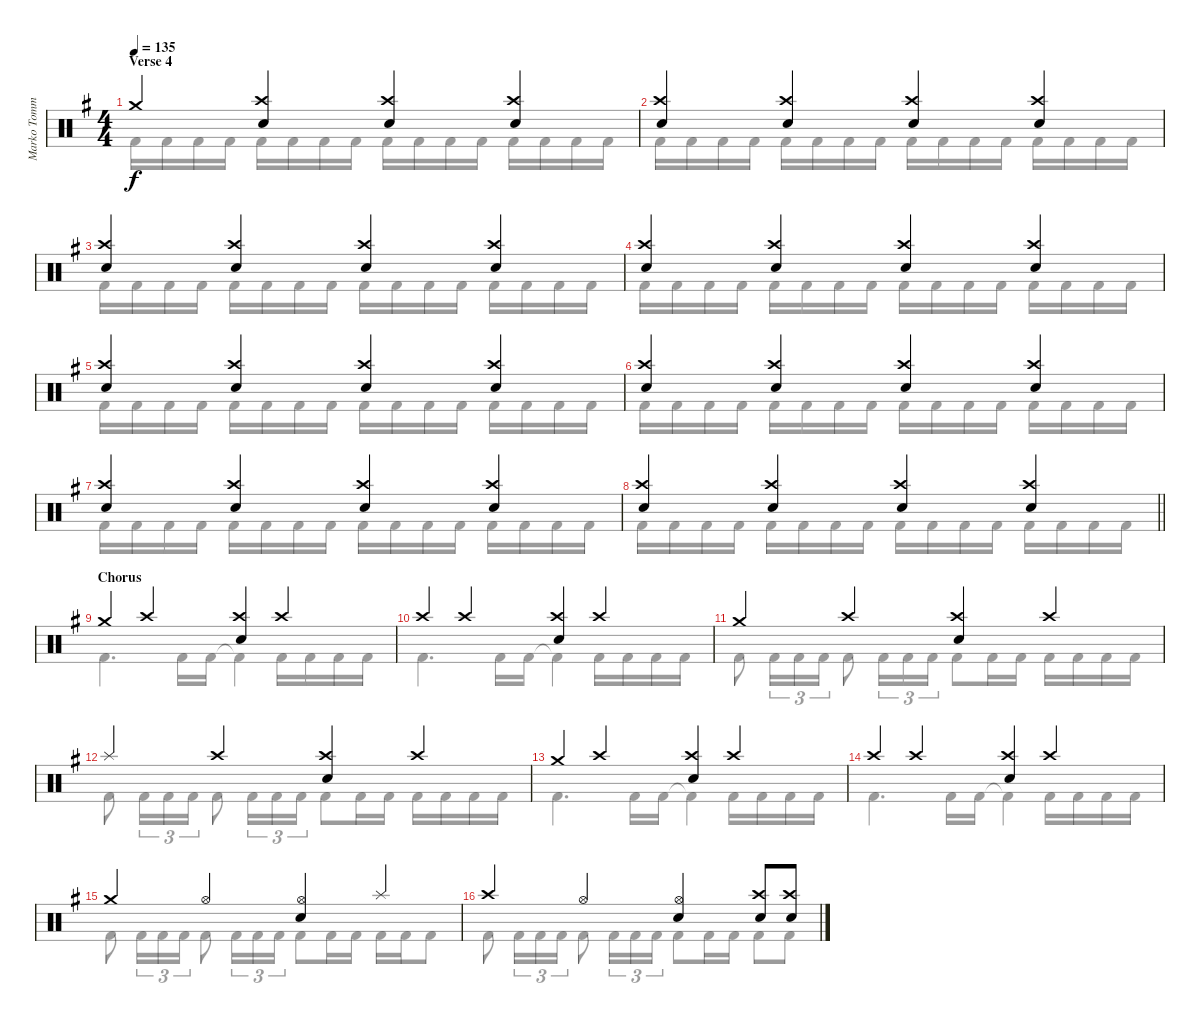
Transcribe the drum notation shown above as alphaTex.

\track ("Marko Tommila (drums)" "Marko Tomm") {instrument percussion}
\staff {score}
\articulation defaults
\voice
\ts (4 4)
\section ("" "Verse 4")
\tempo 135
\clef neutral
\ks eminor "Crash medium (hit)".4{dy f}
("Crash high (hit)" "Electric Snare (hit)").4 ("Crash high (hit)" "Electric Snare (hit)").4 ("Crash high (hit)" "Electric Snare (hit)").4 |
("Crash high (hit)" "Electric Snare (hit)").4 ("Crash high (hit)" "Electric Snare (hit)").4 ("Crash high (hit)" "Electric Snare (hit)").4 ("Crash high (hit)" "Electric Snare (hit)").4 |
("Crash high (hit)" "Electric Snare (hit)").4 ("Crash high (hit)" "Electric Snare (hit)").4 ("Crash high (hit)" "Electric Snare (hit)").4 ("Crash high (hit)" "Electric Snare (hit)").4 |
("Crash high (hit)" "Electric Snare (hit)").4 ("Crash high (hit)" "Electric Snare (hit)").4 ("Crash high (hit)" "Electric Snare (hit)").4 ("Crash high (hit)" "Electric Snare (hit)").4 |
("Crash high (hit)" "Electric Snare (hit)").4 ("Crash high (hit)" "Electric Snare (hit)").4 ("Crash high (hit)" "Electric Snare (hit)").4 ("Crash high (hit)" "Electric Snare (hit)").4 |
("Crash high (hit)" "Electric Snare (hit)").4 ("Crash high (hit)" "Electric Snare (hit)").4 ("Crash high (hit)" "Electric Snare (hit)").4 ("Crash high (hit)" "Electric Snare (hit)").4 |
("Crash high (hit)" "Electric Snare (hit)").4 ("Crash high (hit)" "Electric Snare (hit)").4 ("Crash high (hit)" "Electric Snare (hit)").4 ("Crash high (hit)" "Electric Snare (hit)").4 |
\barLineRight lightlight
("Crash high (hit)" "Electric Snare (hit)").4 ("Crash high (hit)" "Electric Snare (hit)").4 ("Crash high (hit)" "Electric Snare (hit)").4 ("Crash high (hit)" "Electric Snare (hit)").4 |
\section ("" "Chorus")
"Crash medium (hit)".4 "Crash high (hit)".4 ("Crash high (hit)" "Electric Snare (hit)").4 "Crash high (hit)".4 |
"Crash high (hit)".4 "Crash high (hit)".4 ("Crash high (hit)" "Electric Snare (hit)").4 "Crash high (hit)".4 |
"Crash medium (hit)".4 "Crash high (hit)".4 ("Crash high (hit)" "Electric Snare (hit)").4 "Crash high (hit)".4 |
"Splash (hit)".4 "Crash high (hit)".4 ("Crash high (hit)" "Electric Snare (hit)").4 "Crash high (hit)".4 |
"Crash medium (hit)".4 "Crash high (hit)".4 ("Crash high (hit)" "Electric Snare (hit)").4 "Crash high (hit)".4 |
"Crash high (hit)".4 "Crash high (hit)".4 ("Crash high (hit)" "Electric Snare (hit)").4 "Crash high (hit)".4 |
"Crash medium (hit)".4 "Hi-Hat (open)".4 ("Hi-Hat (open)" "Electric Snare (hit)").4 "Splash (hit)".4 |
"Crash high (hit)".4 "Hi-Hat (open)".4 ("Hi-Hat (open)" "Electric Snare (hit)").4 ("Crash high (hit)" "Electric Snare (hit)").8 ("Crash high (hit)" "Electric Snare (hit)").8
\voice
\clef neutral
\ottava regular
\simile none
\ks eminor "Kick (hit) 2".16{dy f} "Kick (hit) 2".16 "Kick (hit) 2".16 "Kick (hit) 2".16 "Kick (hit) 2".16 "Kick (hit) 2".16 "Kick (hit) 2".16 "Kick (hit) 2".16 "Kick (hit) 2".16 "Kick (hit) 2".16 "Kick (hit) 2".16 "Kick (hit) 2".16 "Kick (hit) 2".16 "Kick (hit) 2".16 "Kick (hit) 2".16 "Kick (hit) 2".16
|
"Kick (hit) 2".16 "Kick (hit) 2".16 "Kick (hit) 2".16 "Kick (hit) 2".16 "Kick (hit) 2".16 "Kick (hit) 2".16 "Kick (hit) 2".16 "Kick (hit) 2".16 "Kick (hit) 2".16 "Kick (hit) 2".16 "Kick (hit) 2".16 "Kick (hit) 2".16 "Kick (hit) 2".16 "Kick (hit) 2".16 "Kick (hit) 2".16 "Kick (hit) 2".16 |
"Kick (hit) 2".16 "Kick (hit) 2".16 "Kick (hit) 2".16 "Kick (hit) 2".16 "Kick (hit) 2".16 "Kick (hit) 2".16 "Kick (hit) 2".16 "Kick (hit) 2".16 "Kick (hit) 2".16 "Kick (hit) 2".16 "Kick (hit) 2".16 "Kick (hit) 2".16 "Kick (hit) 2".16 "Kick (hit) 2".16 "Kick (hit) 2".16 "Kick (hit) 2".16 |
"Kick (hit) 2".16 "Kick (hit) 2".16 "Kick (hit) 2".16 "Kick (hit) 2".16 "Kick (hit) 2".16 "Kick (hit) 2".16 "Kick (hit) 2".16 "Kick (hit) 2".16 "Kick (hit) 2".16 "Kick (hit) 2".16 "Kick (hit) 2".16 "Kick (hit) 2".16 "Kick (hit) 2".16 "Kick (hit) 2".16 "Kick (hit) 2".16 "Kick (hit) 2".16 |
"Kick (hit) 2".16 "Kick (hit) 2".16 "Kick (hit) 2".16 "Kick (hit) 2".16 "Kick (hit) 2".16 "Kick (hit) 2".16 "Kick (hit) 2".16 "Kick (hit) 2".16 "Kick (hit) 2".16 "Kick (hit) 2".16 "Kick (hit) 2".16 "Kick (hit) 2".16 "Kick (hit) 2".16 "Kick (hit) 2".16 "Kick (hit) 2".16 "Kick (hit) 2".16 |
"Kick (hit) 2".16 "Kick (hit) 2".16 "Kick (hit) 2".16 "Kick (hit) 2".16 "Kick (hit) 2".16 "Kick (hit) 2".16 "Kick (hit) 2".16 "Kick (hit) 2".16 "Kick (hit) 2".16 "Kick (hit) 2".16 "Kick (hit) 2".16 "Kick (hit) 2".16 "Kick (hit) 2".16 "Kick (hit) 2".16 "Kick (hit) 2".16 "Kick (hit) 2".16 |
"Kick (hit) 2".16 "Kick (hit) 2".16 "Kick (hit) 2".16 "Kick (hit) 2".16 "Kick (hit) 2".16 "Kick (hit) 2".16 "Kick (hit) 2".16 "Kick (hit) 2".16 "Kick (hit) 2".16 "Kick (hit) 2".16 "Kick (hit) 2".16 "Kick (hit) 2".16 "Kick (hit) 2".16 "Kick (hit) 2".16 "Kick (hit) 2".16 "Kick (hit) 2".16 |
\barLineRight lightlight "Kick (hit) 2".16 "Kick (hit) 2".16 "Kick (hit) 2".16 "Kick (hit) 2".16 "Kick (hit) 2".16 "Kick (hit) 2".16 "Kick (hit) 2".16 "Kick (hit) 2".16 "Kick (hit) 2".16 "Kick (hit) 2".16 "Kick (hit) 2".16 "Kick (hit) 2".16 "Kick (hit) 2".16 "Kick (hit) 2".16 "Kick (hit) 2".16 "Kick (hit) 2".16
|
"Kick (hit) 2".4{d} "Kick (hit) 2".16 "Kick (hit) 2".16 "Kick (hit) 2"{t}.4 "Kick (hit) 2".16 "Kick (hit) 2".16 "Kick (hit) 2".16 "Kick (hit) 2".16 |
"Kick (hit) 2".4{d} "Kick (hit) 2".16 "Kick (hit) 2".16 "Kick (hit) 2"{t}.4 "Kick (hit) 2".16 "Kick (hit) 2".16 "Kick (hit) 2".16 "Kick (hit) 2".16 |
"Kick (hit) 2".8 "Kick (hit) 2".16{tu (3 2)} "Kick (hit) 2".16{tu (3 2)} "Kick (hit) 2".16{tu (3 2)} "Kick (hit) 2".8 "Kick (hit) 2".16{tu (3 2)} "Kick (hit) 2".16{tu (3 2)} "Kick (hit) 2".16{tu (3 2)} "Kick (hit) 2".8 "Kick (hit) 2".16 "Kick (hit) 2".16 "Kick (hit) 2".16 "Kick (hit) 2".16 "Kick (hit) 2".16 "Kick (hit) 2".16 |
"Kick (hit) 2".8 "Kick (hit) 2".16{tu (3 2)} "Kick (hit) 2".16{tu (3 2)} "Kick (hit) 2".16{tu (3 2)} "Kick (hit) 2".8 "Kick (hit) 2".16{tu (3 2)} "Kick (hit) 2".16{tu (3 2)} "Kick (hit) 2".16{tu (3 2)} "Kick (hit) 2".8 "Kick (hit) 2".16 "Kick (hit) 2".16 "Kick (hit) 2".16 "Kick (hit) 2".16 "Kick (hit) 2".16 "Kick (hit) 2".16 |
"Kick (hit) 2".4{d} "Kick (hit) 2".16 "Kick (hit) 2".16 "Kick (hit) 2"{t}.4 "Kick (hit) 2".16 "Kick (hit) 2".16 "Kick (hit) 2".16 "Kick (hit) 2".16 |
"Kick (hit) 2".4{d} "Kick (hit) 2".16 "Kick (hit) 2".16 "Kick (hit) 2"{t}.4 "Kick (hit) 2".16 "Kick (hit) 2".16 "Kick (hit) 2".16 "Kick (hit) 2".16 |
"Kick (hit) 2".8 "Kick (hit) 2".16{tu (3 2)} "Kick (hit) 2".16{tu (3 2)} "Kick (hit) 2".16{tu (3 2)} "Kick (hit) 2".8 "Kick (hit) 2".16{tu (3 2)} "Kick (hit) 2".16{tu (3 2)} "Kick (hit) 2".16{tu (3 2)} "Kick (hit) 2".8 "Kick (hit) 2".16 "Kick (hit) 2".16 "Kick (hit) 2".16 "Kick (hit) 2".16 "Kick (hit) 2".8 |
"Kick (hit) 2".8 "Kick (hit) 2".16{tu (3 2)} "Kick (hit) 2".16{tu (3 2)} "Kick (hit) 2".16{tu (3 2)} "Kick (hit) 2".8 "Kick (hit) 2".16{tu (3 2)} "Kick (hit) 2".16{tu (3 2)} "Kick (hit) 2".16{tu (3 2)} "Kick (hit) 2".8 "Kick (hit) 2".16 "Kick (hit) 2".16 "Kick (hit) 2".8 "Kick (hit) 2".8
